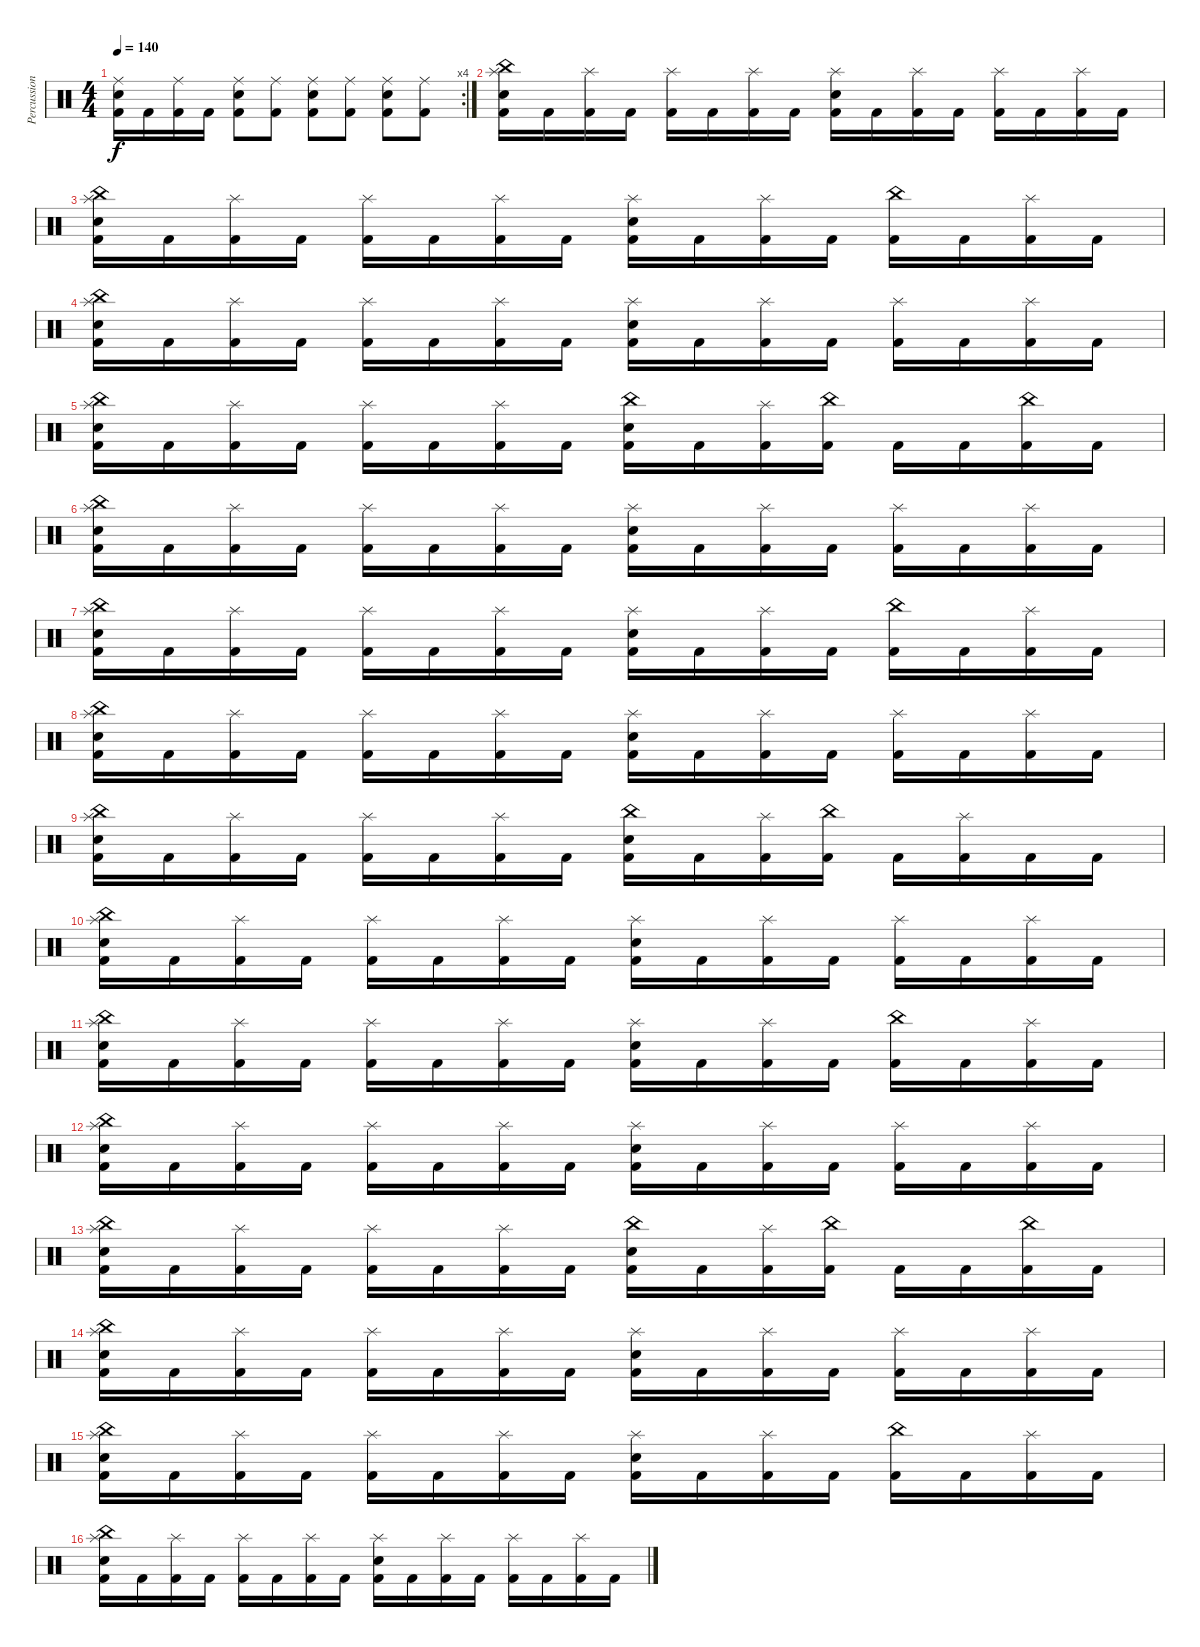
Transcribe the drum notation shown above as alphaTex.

\track ("Percussion" "Percussion") {instrument percussion}
\staff {score}
\articulation defaults
\rc 4
\ts (4 4)
\tempo 140
\clef neutral
\ks c
("Ride (middle)" "Electric Snare (hit)" "Kick (hit) 2").16{dy f} "Kick (hit) 2".16 ("Ride (middle)" "Kick (hit) 2").16 "Kick (hit) 2".16 ("Ride (middle)" "Electric Snare (hit)" "Kick (hit) 2").8 ("Ride (middle)" "Kick (hit) 2").8 ("Ride (middle)" "Electric Snare (hit)" "Kick (hit) 2").8 ("Ride (middle)" "Kick (hit) 2").8 ("Ride (middle)" "Electric Snare (hit)" "Kick (hit) 2").8 ("Ride (middle)" "Kick (hit) 2").8 |
("China (hit)" "Splash (hit)" "Electric Snare (hit)" "Kick (hit) 2").16 "Kick (hit) 2".16 ("Splash (hit)" "Kick (hit) 2").16 "Kick (hit) 2".16 ("Splash (hit)" "Kick (hit) 2").16 "Kick (hit) 2".16 ("Splash (hit)" "Kick (hit) 2").16 "Kick (hit) 2".16 ("Splash (hit)" "Electric Snare (hit)" "Kick (hit) 2").16 "Kick (hit) 2".16 ("Splash (hit)" "Kick (hit) 2").16 "Kick (hit) 2".16 ("Splash (hit)" "Kick (hit) 2").16 "Kick (hit) 2".16 ("Splash (hit)" "Kick (hit) 2").16 "Kick (hit) 2".16 |
("China (hit)" "Splash (hit)" "Electric Snare (hit)" "Kick (hit) 2").16 "Kick (hit) 2".16 ("Splash (hit)" "Kick (hit) 2").16 "Kick (hit) 2".16 ("Splash (hit)" "Kick (hit) 2").16 "Kick (hit) 2".16 ("Splash (hit)" "Kick (hit) 2").16 "Kick (hit) 2".16 ("Splash (hit)" "Electric Snare (hit)" "Kick (hit) 2").16 "Kick (hit) 2".16 ("Splash (hit)" "Kick (hit) 2").16 "Kick (hit) 2".16 ("China (hit)" "Kick (hit) 2").16 "Kick (hit) 2".16 ("Splash (hit)" "Kick (hit) 2").16 "Kick (hit) 2".16 |
("China (hit)" "Splash (hit)" "Electric Snare (hit)" "Kick (hit) 2").16 "Kick (hit) 2".16 ("Splash (hit)" "Kick (hit) 2").16 "Kick (hit) 2".16 ("Splash (hit)" "Kick (hit) 2").16 "Kick (hit) 2".16 ("Splash (hit)" "Kick (hit) 2").16 "Kick (hit) 2".16 ("Splash (hit)" "Electric Snare (hit)" "Kick (hit) 2").16 "Kick (hit) 2".16 ("Splash (hit)" "Kick (hit) 2").16 "Kick (hit) 2".16 ("Splash (hit)" "Kick (hit) 2").16 "Kick (hit) 2".16 ("Splash (hit)" "Kick (hit) 2").16 "Kick (hit) 2".16 |
("China (hit)" "Splash (hit)" "Electric Snare (hit)" "Kick (hit) 2").16 "Kick (hit) 2".16 ("Splash (hit)" "Kick (hit) 2").16 "Kick (hit) 2".16 ("Splash (hit)" "Kick (hit) 2").16 "Kick (hit) 2".16 ("Splash (hit)" "Kick (hit) 2").16 "Kick (hit) 2".16 ("China (hit)" "Electric Snare (hit)" "Kick (hit) 2").16 "Kick (hit) 2".16 ("Splash (hit)" "Kick (hit) 2").16 ("China (hit)" "Kick (hit) 2").16 "Kick (hit) 2".16 "Kick (hit) 2".16 ("China (hit)" "Kick (hit) 2").16 "Kick (hit) 2".16 |
("China (hit)" "Splash (hit)" "Electric Snare (hit)" "Kick (hit) 2").16 "Kick (hit) 2".16 ("Splash (hit)" "Kick (hit) 2").16 "Kick (hit) 2".16 ("Splash (hit)" "Kick (hit) 2").16 "Kick (hit) 2".16 ("Splash (hit)" "Kick (hit) 2").16 "Kick (hit) 2".16 ("Splash (hit)" "Electric Snare (hit)" "Kick (hit) 2").16 "Kick (hit) 2".16 ("Splash (hit)" "Kick (hit) 2").16 "Kick (hit) 2".16 ("Splash (hit)" "Kick (hit) 2").16 "Kick (hit) 2".16 ("Splash (hit)" "Kick (hit) 2").16 "Kick (hit) 2".16 |
("China (hit)" "Splash (hit)" "Electric Snare (hit)" "Kick (hit) 2").16 "Kick (hit) 2".16 ("Splash (hit)" "Kick (hit) 2").16 "Kick (hit) 2".16 ("Splash (hit)" "Kick (hit) 2").16 "Kick (hit) 2".16 ("Splash (hit)" "Kick (hit) 2").16 "Kick (hit) 2".16 ("Splash (hit)" "Electric Snare (hit)" "Kick (hit) 2").16 "Kick (hit) 2".16 ("Splash (hit)" "Kick (hit) 2").16 "Kick (hit) 2".16 ("China (hit)" "Kick (hit) 2").16 "Kick (hit) 2".16 ("Splash (hit)" "Kick (hit) 2").16 "Kick (hit) 2".16 |
("China (hit)" "Splash (hit)" "Electric Snare (hit)" "Kick (hit) 2").16 "Kick (hit) 2".16 ("Splash (hit)" "Kick (hit) 2").16 "Kick (hit) 2".16 ("Splash (hit)" "Kick (hit) 2").16 "Kick (hit) 2".16 ("Splash (hit)" "Kick (hit) 2").16 "Kick (hit) 2".16 ("Splash (hit)" "Electric Snare (hit)" "Kick (hit) 2").16 "Kick (hit) 2".16 ("Splash (hit)" "Kick (hit) 2").16 "Kick (hit) 2".16 ("Splash (hit)" "Kick (hit) 2").16 "Kick (hit) 2".16 ("Splash (hit)" "Kick (hit) 2").16 "Kick (hit) 2".16 |
("China (hit)" "Splash (hit)" "Electric Snare (hit)" "Kick (hit) 2").16 "Kick (hit) 2".16 ("Splash (hit)" "Kick (hit) 2").16 "Kick (hit) 2".16 ("Splash (hit)" "Kick (hit) 2").16 "Kick (hit) 2".16 ("Splash (hit)" "Kick (hit) 2").16 "Kick (hit) 2".16 ("China (hit)" "Electric Snare (hit)" "Kick (hit) 2").16 "Kick (hit) 2".16 ("Splash (hit)" "Kick (hit) 2").16 ("China (hit)" "Kick (hit) 2").16 "Kick (hit) 2".16 ("Splash (hit)" "Kick (hit) 2").16 "Kick (hit) 2".16 "Kick (hit) 2".16 |
("China (hit)" "Splash (hit)" "Electric Snare (hit)" "Kick (hit) 2").16 "Kick (hit) 2".16 ("Splash (hit)" "Kick (hit) 2").16 "Kick (hit) 2".16 ("Splash (hit)" "Kick (hit) 2").16 "Kick (hit) 2".16 ("Splash (hit)" "Kick (hit) 2").16 "Kick (hit) 2".16 ("Splash (hit)" "Electric Snare (hit)" "Kick (hit) 2").16 "Kick (hit) 2".16 ("Splash (hit)" "Kick (hit) 2").16 "Kick (hit) 2".16 ("Splash (hit)" "Kick (hit) 2").16 "Kick (hit) 2".16 ("Splash (hit)" "Kick (hit) 2").16 "Kick (hit) 2".16 |
("China (hit)" "Splash (hit)" "Electric Snare (hit)" "Kick (hit) 2").16 "Kick (hit) 2".16 ("Splash (hit)" "Kick (hit) 2").16 "Kick (hit) 2".16 ("Splash (hit)" "Kick (hit) 2").16 "Kick (hit) 2".16 ("Splash (hit)" "Kick (hit) 2").16 "Kick (hit) 2".16 ("Splash (hit)" "Electric Snare (hit)" "Kick (hit) 2").16 "Kick (hit) 2".16 ("Splash (hit)" "Kick (hit) 2").16 "Kick (hit) 2".16 ("China (hit)" "Kick (hit) 2").16 "Kick (hit) 2".16 ("Splash (hit)" "Kick (hit) 2").16 "Kick (hit) 2".16 |
("China (hit)" "Splash (hit)" "Electric Snare (hit)" "Kick (hit) 2").16 "Kick (hit) 2".16 ("Splash (hit)" "Kick (hit) 2").16 "Kick (hit) 2".16 ("Splash (hit)" "Kick (hit) 2").16 "Kick (hit) 2".16 ("Splash (hit)" "Kick (hit) 2").16 "Kick (hit) 2".16 ("Splash (hit)" "Electric Snare (hit)" "Kick (hit) 2").16 "Kick (hit) 2".16 ("Splash (hit)" "Kick (hit) 2").16 "Kick (hit) 2".16 ("Splash (hit)" "Kick (hit) 2").16 "Kick (hit) 2".16 ("Splash (hit)" "Kick (hit) 2").16 "Kick (hit) 2".16 |
("China (hit)" "Splash (hit)" "Electric Snare (hit)" "Kick (hit) 2").16 "Kick (hit) 2".16 ("Splash (hit)" "Kick (hit) 2").16 "Kick (hit) 2".16 ("Splash (hit)" "Kick (hit) 2").16 "Kick (hit) 2".16 ("Splash (hit)" "Kick (hit) 2").16 "Kick (hit) 2".16 ("China (hit)" "Electric Snare (hit)" "Kick (hit) 2").16 "Kick (hit) 2".16 ("Splash (hit)" "Kick (hit) 2").16 ("China (hit)" "Kick (hit) 2").16 "Kick (hit) 2".16 "Kick (hit) 2".16 ("China (hit)" "Kick (hit) 2").16 "Kick (hit) 2".16 |
("China (hit)" "Splash (hit)" "Electric Snare (hit)" "Kick (hit) 2").16 "Kick (hit) 2".16 ("Splash (hit)" "Kick (hit) 2").16 "Kick (hit) 2".16 ("Splash (hit)" "Kick (hit) 2").16 "Kick (hit) 2".16 ("Splash (hit)" "Kick (hit) 2").16 "Kick (hit) 2".16 ("Splash (hit)" "Electric Snare (hit)" "Kick (hit) 2").16 "Kick (hit) 2".16 ("Splash (hit)" "Kick (hit) 2").16 "Kick (hit) 2".16 ("Splash (hit)" "Kick (hit) 2").16 "Kick (hit) 2".16 ("Splash (hit)" "Kick (hit) 2").16 "Kick (hit) 2".16 |
("China (hit)" "Splash (hit)" "Electric Snare (hit)" "Kick (hit) 2").16 "Kick (hit) 2".16 ("Splash (hit)" "Kick (hit) 2").16 "Kick (hit) 2".16 ("Splash (hit)" "Kick (hit) 2").16 "Kick (hit) 2".16 ("Splash (hit)" "Kick (hit) 2").16 "Kick (hit) 2".16 ("Splash (hit)" "Electric Snare (hit)" "Kick (hit) 2").16 "Kick (hit) 2".16 ("Splash (hit)" "Kick (hit) 2").16 "Kick (hit) 2".16 ("China (hit)" "Kick (hit) 2").16 "Kick (hit) 2".16 ("Splash (hit)" "Kick (hit) 2").16 "Kick (hit) 2".16 |
("China (hit)" "Splash (hit)" "Electric Snare (hit)" "Kick (hit) 2").16 "Kick (hit) 2".16 ("Splash (hit)" "Kick (hit) 2").16 "Kick (hit) 2".16 ("Splash (hit)" "Kick (hit) 2").16 "Kick (hit) 2".16 ("Splash (hit)" "Kick (hit) 2").16 "Kick (hit) 2".16 ("Splash (hit)" "Electric Snare (hit)" "Kick (hit) 2").16 "Kick (hit) 2".16 ("Splash (hit)" "Kick (hit) 2").16 "Kick (hit) 2".16 ("Splash (hit)" "Kick (hit) 2").16 "Kick (hit) 2".16 ("Splash (hit)" "Kick (hit) 2").16 "Kick (hit) 2".16
